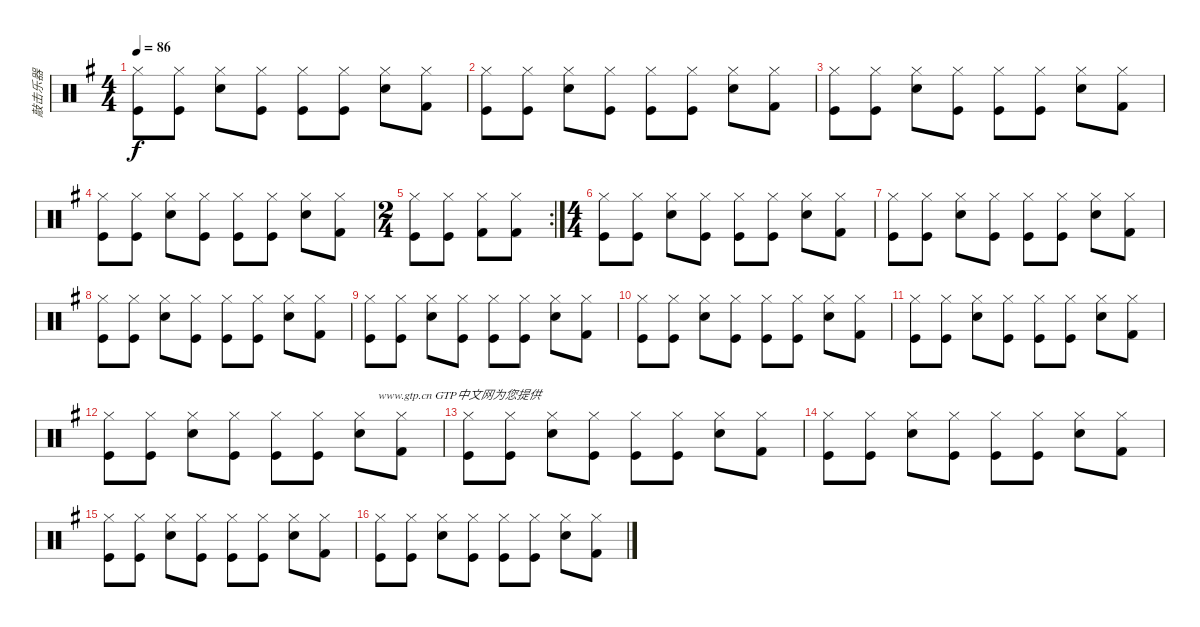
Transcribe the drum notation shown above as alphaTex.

\track ("敲击乐器" "敲击乐器") {instrument percussion}
\staff {score}
\articulation defaults
\ts (4 4)
\tempo 86
\clef neutral
\ks g
("Hi-Hat (closed)" "Kick (hit)").8{dy f} ("Hi-Hat (closed)" "Kick (hit)").8 ("Hi-Hat (closed)" "Snare (hit) 2").8 ("Hi-Hat (closed)" "Kick (hit)").8 ("Hi-Hat (closed)" "Kick (hit)").8 ("Hi-Hat (closed)" "Kick (hit)").8 ("Hi-Hat (closed)" "Snare (hit) 2").8 ("Hi-Hat (closed)" "Kick (hit) 2").8 |
("Hi-Hat (closed)" "Kick (hit)").8 ("Hi-Hat (closed)" "Kick (hit)").8 ("Hi-Hat (closed)" "Snare (hit) 2").8 ("Hi-Hat (closed)" "Kick (hit)").8 ("Hi-Hat (closed)" "Kick (hit)").8 ("Hi-Hat (closed)" "Kick (hit)").8 ("Hi-Hat (closed)" "Snare (hit) 2").8 ("Hi-Hat (closed)" "Kick (hit) 2").8 |
("Hi-Hat (closed)" "Kick (hit)").8 ("Hi-Hat (closed)" "Kick (hit)").8 ("Hi-Hat (closed)" "Snare (hit) 2").8 ("Hi-Hat (closed)" "Kick (hit)").8 ("Hi-Hat (closed)" "Kick (hit)").8 ("Hi-Hat (closed)" "Kick (hit)").8 ("Hi-Hat (closed)" "Snare (hit) 2").8 ("Hi-Hat (closed)" "Kick (hit) 2").8 |
("Hi-Hat (closed)" "Kick (hit)").8 ("Hi-Hat (closed)" "Kick (hit)").8 ("Hi-Hat (closed)" "Snare (hit) 2").8 ("Hi-Hat (closed)" "Kick (hit)").8 ("Hi-Hat (closed)" "Kick (hit)").8 ("Hi-Hat (closed)" "Kick (hit)").8 ("Hi-Hat (closed)" "Snare (hit) 2").8 ("Hi-Hat (closed)" "Kick (hit) 2").8 |
\rc 2
\ts (2 4)
("Hi-Hat (closed)" "Kick (hit)").8 ("Hi-Hat (closed)" "Kick (hit)").8 ("Hi-Hat (closed)" "Kick (hit) 2").8 ("Hi-Hat (closed)" "Kick (hit) 2").8 |
\ts (4 4)
("Hi-Hat (closed)" "Kick (hit)").8 ("Hi-Hat (closed)" "Kick (hit)").8 ("Hi-Hat (closed)" "Snare (hit) 2").8 ("Hi-Hat (closed)" "Kick (hit)").8 ("Hi-Hat (closed)" "Kick (hit)").8 ("Hi-Hat (closed)" "Kick (hit)").8 ("Hi-Hat (closed)" "Snare (hit) 2").8 ("Hi-Hat (closed)" "Kick (hit) 2").8 |
("Hi-Hat (closed)" "Kick (hit)").8 ("Hi-Hat (closed)" "Kick (hit)").8 ("Hi-Hat (closed)" "Snare (hit) 2").8 ("Hi-Hat (closed)" "Kick (hit)").8 ("Hi-Hat (closed)" "Kick (hit)").8 ("Hi-Hat (closed)" "Kick (hit)").8 ("Hi-Hat (closed)" "Snare (hit) 2").8 ("Hi-Hat (closed)" "Kick (hit) 2").8 |
("Hi-Hat (closed)" "Kick (hit)").8 ("Hi-Hat (closed)" "Kick (hit)").8 ("Hi-Hat (closed)" "Snare (hit) 2").8 ("Hi-Hat (closed)" "Kick (hit)").8 ("Hi-Hat (closed)" "Kick (hit)").8 ("Hi-Hat (closed)" "Kick (hit)").8 ("Hi-Hat (closed)" "Snare (hit) 2").8 ("Hi-Hat (closed)" "Kick (hit) 2").8 |
("Hi-Hat (closed)" "Kick (hit)").8 ("Hi-Hat (closed)" "Kick (hit)").8 ("Hi-Hat (closed)" "Snare (hit) 2").8 ("Hi-Hat (closed)" "Kick (hit)").8 ("Hi-Hat (closed)" "Kick (hit)").8 ("Hi-Hat (closed)" "Kick (hit)").8 ("Hi-Hat (closed)" "Snare (hit) 2").8 ("Hi-Hat (closed)" "Kick (hit) 2").8 |
("Hi-Hat (closed)" "Kick (hit)").8 ("Hi-Hat (closed)" "Kick (hit)").8 ("Hi-Hat (closed)" "Snare (hit) 2").8 ("Hi-Hat (closed)" "Kick (hit)").8 ("Hi-Hat (closed)" "Kick (hit)").8 ("Hi-Hat (closed)" "Kick (hit)").8 ("Hi-Hat (closed)" "Snare (hit) 2").8 ("Hi-Hat (closed)" "Kick (hit) 2").8 |
("Hi-Hat (closed)" "Kick (hit)").8 ("Hi-Hat (closed)" "Kick (hit)").8 ("Hi-Hat (closed)" "Snare (hit) 2").8 ("Hi-Hat (closed)" "Kick (hit)").8 ("Hi-Hat (closed)" "Kick (hit)").8 ("Hi-Hat (closed)" "Kick (hit)").8 ("Hi-Hat (closed)" "Snare (hit) 2").8 ("Hi-Hat (closed)" "Kick (hit) 2").8 |
("Hi-Hat (closed)" "Kick (hit)").8 ("Hi-Hat (closed)" "Kick (hit)").8 ("Hi-Hat (closed)" "Snare (hit) 2").8 ("Hi-Hat (closed)" "Kick (hit)").8 ("Hi-Hat (closed)" "Kick (hit)").8 ("Hi-Hat (closed)" "Kick (hit)").8{txt "                    www.gtp.cn GTP中文网为您提供"} ("Hi-Hat (closed)" "Snare (hit) 2").8 ("Hi-Hat (closed)" "Kick (hit) 2").8 |
("Hi-Hat (closed)" "Kick (hit)").8 ("Hi-Hat (closed)" "Kick (hit)").8 ("Hi-Hat (closed)" "Snare (hit) 2").8 ("Hi-Hat (closed)" "Kick (hit)").8 ("Hi-Hat (closed)" "Kick (hit)").8 ("Hi-Hat (closed)" "Kick (hit)").8 ("Hi-Hat (closed)" "Snare (hit) 2").8 ("Hi-Hat (closed)" "Kick (hit) 2").8 |
("Hi-Hat (closed)" "Kick (hit)").8 ("Hi-Hat (closed)" "Kick (hit)").8 ("Hi-Hat (closed)" "Snare (hit) 2").8 ("Hi-Hat (closed)" "Kick (hit)").8 ("Hi-Hat (closed)" "Kick (hit)").8 ("Hi-Hat (closed)" "Kick (hit)").8 ("Hi-Hat (closed)" "Snare (hit) 2").8 ("Hi-Hat (closed)" "Kick (hit) 2").8 |
("Hi-Hat (closed)" "Kick (hit)").8 ("Hi-Hat (closed)" "Kick (hit)").8 ("Hi-Hat (closed)" "Snare (hit) 2").8 ("Hi-Hat (closed)" "Kick (hit)").8 ("Hi-Hat (closed)" "Kick (hit)").8 ("Hi-Hat (closed)" "Kick (hit)").8 ("Hi-Hat (closed)" "Snare (hit) 2").8 ("Hi-Hat (closed)" "Kick (hit) 2").8 |
("Hi-Hat (closed)" "Kick (hit)").8 ("Hi-Hat (closed)" "Kick (hit)").8 ("Hi-Hat (closed)" "Snare (hit) 2").8 ("Hi-Hat (closed)" "Kick (hit)").8 ("Hi-Hat (closed)" "Kick (hit)").8 ("Hi-Hat (closed)" "Kick (hit)").8 ("Hi-Hat (closed)" "Snare (hit) 2").8 ("Hi-Hat (closed)" "Kick (hit) 2").8
